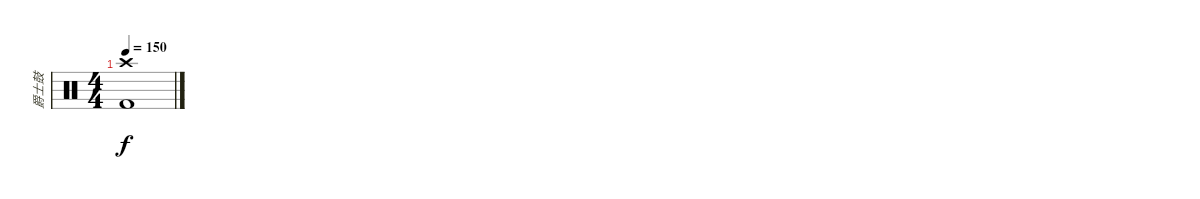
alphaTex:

\track ("爵士鼓" "爵士鼓") {instrument percussion}
\staff {score}
\articulation defaults
\ts (4 4)
\tempo 150
\clef neutral
\ks c
("Crash high (hit)"{t} "Kick (hit) 2"{t}).1{dy f}
